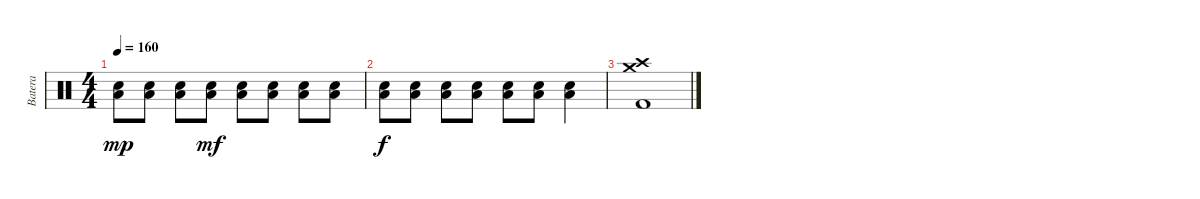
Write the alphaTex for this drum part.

\track ("Batera" "Batera") {instrument percussion}
\staff {score}
\articulation defaults
\ts (4 4)
\tempo 160
\clef neutral
\ks c
("Electric Snare (hit)" "Low Tom (hit)").8{dy mp} ("Electric Snare (hit)" "Low Tom (hit)").8 ("Electric Snare (hit)" "Low Tom (hit)").8 ("Electric Snare (hit)" "Low Tom (hit)").8{dy mf} ("Electric Snare (hit)" "Low Tom (hit)").8 ("Electric Snare (hit)" "Low Tom (hit)").8 ("Electric Snare (hit)" "Low Tom (hit)").8 ("Electric Snare (hit)" "Low Tom (hit)").8 |
("Electric Snare (hit)" "Low Tom (hit)").8{dy f} ("Electric Snare (hit)" "Low Tom (hit)").8 ("Electric Snare (hit)" "Low Tom (hit)").8 ("Electric Snare (hit)" "Low Tom (hit)").8 ("Electric Snare (hit)" "Low Tom (hit)").8 ("Electric Snare (hit)" "Low Tom (hit)").8 ("Electric Snare (hit)" "Low Tom (hit)").4 |
("Crash high (hit)" "Crash medium (hit)" "Kick (hit) 2").1
